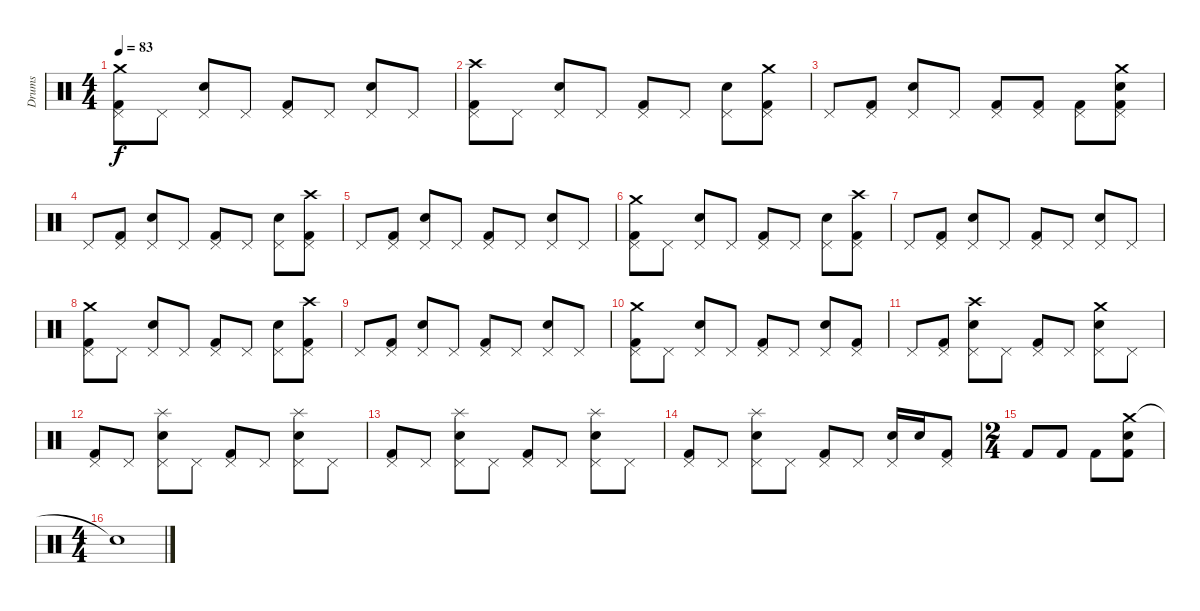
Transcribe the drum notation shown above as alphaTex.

\track ("Drums" "Drums") {instrument percussion}
\staff {score}
\articulation defaults
\ts (4 4)
\tempo 83
\clef neutral
\ks c
("Crash medium (hit)" "Pedal Hi-Hat (hit)" "Kick (hit) 2").8{dy f} "Pedal Hi-Hat (hit)".8 ("Pedal Hi-Hat (hit)" "Snare (hit) 2").8 "Pedal Hi-Hat (hit)".8 ("Pedal Hi-Hat (hit)" "Kick (hit) 2").8 "Pedal Hi-Hat (hit)".8 ("Pedal Hi-Hat (hit)" "Snare (hit) 2").8 "Pedal Hi-Hat (hit)".8 |
("Crash high (hit)" "Pedal Hi-Hat (hit)" "Kick (hit) 2").8 "Pedal Hi-Hat (hit)".8 ("Pedal Hi-Hat (hit)" "Snare (hit) 2").8 "Pedal Hi-Hat (hit)".8 ("Pedal Hi-Hat (hit)" "Kick (hit) 2").8 "Pedal Hi-Hat (hit)".8 ("Pedal Hi-Hat (hit)" "Snare (hit) 2").8 ("Crash medium (hit)" "Pedal Hi-Hat (hit)" "Kick (hit) 2").8 |
"Pedal Hi-Hat (hit)".8 ("Pedal Hi-Hat (hit)" "Kick (hit) 2").8 ("Pedal Hi-Hat (hit)" "Snare (hit) 2").8 "Pedal Hi-Hat (hit)".8 ("Pedal Hi-Hat (hit)" "Kick (hit) 2").8 ("Pedal Hi-Hat (hit)" "Kick (hit) 2").8 ("Kick (hit) 2" "Pedal Hi-Hat (hit)").8 ("Crash medium (hit)" "Pedal Hi-Hat (hit)" "Snare (hit) 2" "Kick (hit) 2").8 |
"Pedal Hi-Hat (hit)".8 ("Kick (hit) 2" "Pedal Hi-Hat (hit)").8 ("Snare (hit) 2" "Pedal Hi-Hat (hit)").8 "Pedal Hi-Hat (hit)".8 ("Kick (hit) 2" "Pedal Hi-Hat (hit)").8 "Pedal Hi-Hat (hit)".8 ("Snare (hit) 2" "Pedal Hi-Hat (hit)").8 ("Kick (hit) 2" "Crash high (hit)" "Pedal Hi-Hat (hit)").8 |
"Pedal Hi-Hat (hit)".8 ("Kick (hit) 2" "Pedal Hi-Hat (hit)").8 ("Snare (hit) 2" "Pedal Hi-Hat (hit)").8 "Pedal Hi-Hat (hit)".8 ("Kick (hit) 2" "Pedal Hi-Hat (hit)").8 "Pedal Hi-Hat (hit)".8 ("Snare (hit) 2" "Pedal Hi-Hat (hit)").8 "Pedal Hi-Hat (hit)".8 |
("Kick (hit) 2" "Crash medium (hit)" "Pedal Hi-Hat (hit)").8 "Pedal Hi-Hat (hit)".8 ("Snare (hit) 2" "Pedal Hi-Hat (hit)").8 "Pedal Hi-Hat (hit)".8 ("Kick (hit) 2" "Pedal Hi-Hat (hit)").8 "Pedal Hi-Hat (hit)".8 ("Snare (hit) 2" "Pedal Hi-Hat (hit)").8 ("Kick (hit) 2" "Crash high (hit)" "Pedal Hi-Hat (hit)").8 |
"Pedal Hi-Hat (hit)".8 ("Kick (hit) 2" "Pedal Hi-Hat (hit)").8 ("Snare (hit) 2" "Pedal Hi-Hat (hit)").8 "Pedal Hi-Hat (hit)".8 ("Kick (hit) 2" "Pedal Hi-Hat (hit)").8 "Pedal Hi-Hat (hit)".8 ("Snare (hit) 2" "Pedal Hi-Hat (hit)").8 "Pedal Hi-Hat (hit)".8 |
("Kick (hit) 2" "Crash medium (hit)" "Pedal Hi-Hat (hit)").8 "Pedal Hi-Hat (hit)".8 ("Snare (hit) 2" "Pedal Hi-Hat (hit)").8 "Pedal Hi-Hat (hit)".8 ("Kick (hit) 2" "Pedal Hi-Hat (hit)").8 "Pedal Hi-Hat (hit)".8 ("Snare (hit) 2" "Pedal Hi-Hat (hit)").8 ("Kick (hit) 2" "Crash high (hit)" "Pedal Hi-Hat (hit)").8 |
"Pedal Hi-Hat (hit)".8 ("Kick (hit) 2" "Pedal Hi-Hat (hit)").8 ("Snare (hit) 2" "Pedal Hi-Hat (hit)").8 "Pedal Hi-Hat (hit)".8 ("Kick (hit) 2" "Pedal Hi-Hat (hit)").8 "Pedal Hi-Hat (hit)".8 ("Snare (hit) 2" "Pedal Hi-Hat (hit)").8 "Pedal Hi-Hat (hit)".8 |
("Crash medium (hit)" "Kick (hit) 2" "Pedal Hi-Hat (hit)").8 "Pedal Hi-Hat (hit)".8 ("Snare (hit) 2" "Pedal Hi-Hat (hit)").8 "Pedal Hi-Hat (hit)".8 ("Kick (hit) 2" "Pedal Hi-Hat (hit)").8 "Pedal Hi-Hat (hit)".8 ("Snare (hit) 2" "Pedal Hi-Hat (hit)").8 ("Kick (hit) 2" "Pedal Hi-Hat (hit)").8 |
"Pedal Hi-Hat (hit)".8 ("Pedal Hi-Hat (hit)" "Kick (hit) 2").8 ("Crash high (hit)" "Pedal Hi-Hat (hit)" "Snare (hit) 2").8 "Pedal Hi-Hat (hit)".8 ("Pedal Hi-Hat (hit)" "Kick (hit) 2").8 "Pedal Hi-Hat (hit)".8 ("Crash medium (hit)" "Pedal Hi-Hat (hit)" "Snare (hit) 2").8 "Pedal Hi-Hat (hit)".8 |
("Pedal Hi-Hat (hit)" "Kick (hit) 2").8 "Pedal Hi-Hat (hit)".8 ("Pedal Hi-Hat (hit)" "Splash (hit)" "Snare (hit) 2").8 "Pedal Hi-Hat (hit)".8 ("Pedal Hi-Hat (hit)" "Kick (hit) 2").8 "Pedal Hi-Hat (hit)".8 ("Pedal Hi-Hat (hit)" "Splash (hit)" "Snare (hit) 2").8 "Pedal Hi-Hat (hit)".8 |
("Pedal Hi-Hat (hit)" "Kick (hit) 2").8 "Pedal Hi-Hat (hit)".8 ("Pedal Hi-Hat (hit)" "Splash (hit)" "Snare (hit) 2").8 "Pedal Hi-Hat (hit)".8 ("Pedal Hi-Hat (hit)" "Kick (hit) 2").8 "Pedal Hi-Hat (hit)".8 ("Pedal Hi-Hat (hit)" "Splash (hit)" "Snare (hit) 2").8 "Pedal Hi-Hat (hit)".8 |
("Pedal Hi-Hat (hit)" "Kick (hit) 2").8 "Pedal Hi-Hat (hit)".8 ("Pedal Hi-Hat (hit)" "Splash (hit)" "Snare (hit) 2").8 "Pedal Hi-Hat (hit)".8 ("Pedal Hi-Hat (hit)" "Kick (hit) 2").8 "Pedal Hi-Hat (hit)".8 ("Pedal Hi-Hat (hit)" "Snare (hit) 2").16 "Snare (hit) 2".16 ("Pedal Hi-Hat (hit)" "Kick (hit) 2").8 |
\ts (2 4)
"Kick (hit) 2".8 "Kick (hit) 2".8 "Kick (hit) 2".8 ("Crash medium (hit)" "Snare (hit) 2" "Kick (hit) 2").8 |
\ts (4 4)
"Snare (hit)"{t}.1
